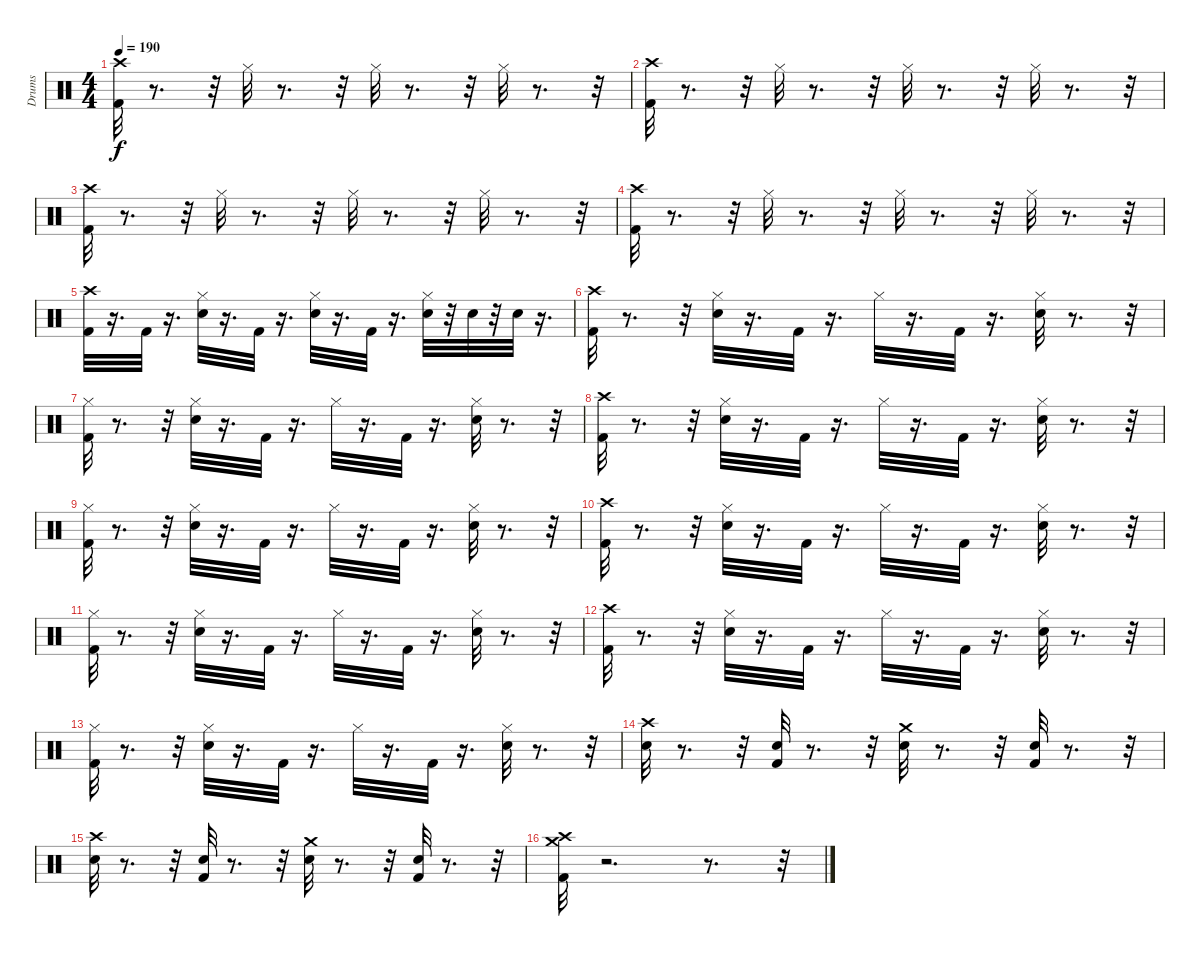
\track ("Drums" "Drums") {instrument percussion}
\staff {score}
\articulation defaults
\ts (4 4)
\tempo 190
\clef neutral
\ks c
("Crash high (hit)" "Kick (hit) 2").32{dy f} r.8{d} r.32 "Hi-Hat (closed)".32 r.8{d} r.32 "Hi-Hat (closed)".32 r.8{d} r.32 "Hi-Hat (closed)".32 r.8{d} r.32 |
("Kick (hit) 2" "Crash high (hit)").32 r.8{d} r.32 "Hi-Hat (closed)".32 r.8{d} r.32 "Hi-Hat (closed)".32 r.8{d} r.32 "Hi-Hat (closed)".32 r.8{d} r.32 |
("Kick (hit) 2" "Crash high (hit)").32 r.8{d} r.32 "Hi-Hat (closed)".32 r.8{d} r.32 "Hi-Hat (closed)".32 r.8{d} r.32 "Hi-Hat (closed)".32 r.8{d} r.32 |
("Crash high (hit)" "Kick (hit) 2").32 r.8{d} r.32 "Hi-Hat (closed)".32 r.8{d} r.32 "Hi-Hat (closed)".32 r.8{d} r.32 "Hi-Hat (closed)".32 r.8{d} r.32 |
("Crash high (hit)" "Kick (hit) 2").32 r.16{d} "Kick (hit) 2".32 r.16{d} ("Hi-Hat (closed)" "Snare (hit) 2").32 r.16{d} "Kick (hit) 2".32 r.16{d} ("Snare (hit) 2" "Hi-Hat (closed)").32 r.16{d} "Kick (hit) 2".32 r.16{d} ("Hi-Hat (closed)" "Snare (hit) 2").32 r.32 "Snare (hit) 2".32 r.32 "Snare (hit) 2".32 r.16{d} |
("Kick (hit) 2" "Crash high (hit)").32 r.8{d} r.32 ("Hi-Hat (closed)" "Snare (hit) 2").32 r.16{d} "Kick (hit) 2".32 r.16{d} "Hi-Hat (closed)".32 r.16{d} "Kick (hit) 2".32 r.16{d} ("Hi-Hat (closed)" "Snare (hit) 2").32 r.8{d} r.32 |
("Hi-Hat (closed)" "Kick (hit) 2").32 r.8{d} r.32 ("Snare (hit) 2" "Hi-Hat (closed)").32 r.16{d} "Kick (hit) 2".32 r.16{d} "Hi-Hat (closed)".32 r.16{d} "Kick (hit) 2".32 r.16{d} ("Snare (hit) 2" "Hi-Hat (closed)").32 r.8{d} r.32 |
("Kick (hit) 2" "Crash high (hit)").32 r.8{d} r.32 ("Hi-Hat (closed)" "Snare (hit) 2").32 r.16{d} "Kick (hit) 2".32 r.16{d} "Hi-Hat (closed)".32 r.16{d} "Kick (hit) 2".32 r.16{d} ("Hi-Hat (closed)" "Snare (hit) 2").32 r.8{d} r.32 |
("Hi-Hat (closed)" "Kick (hit) 2").32 r.8{d} r.32 ("Snare (hit) 2" "Hi-Hat (closed)").32 r.16{d} "Kick (hit) 2".32 r.16{d} "Hi-Hat (closed)".32 r.16{d} "Kick (hit) 2".32 r.16{d} ("Snare (hit) 2" "Hi-Hat (closed)").32 r.8{d} r.32 |
("Kick (hit) 2" "Crash high (hit)").32 r.8{d} r.32 ("Hi-Hat (closed)" "Snare (hit) 2").32 r.16{d} "Kick (hit) 2".32 r.16{d} "Hi-Hat (closed)".32 r.16{d} "Kick (hit) 2".32 r.16{d} ("Hi-Hat (closed)" "Snare (hit) 2").32 r.8{d} r.32 |
("Hi-Hat (closed)" "Kick (hit) 2").32 r.8{d} r.32 ("Snare (hit) 2" "Hi-Hat (closed)").32 r.16{d} "Kick (hit) 2".32 r.16{d} "Hi-Hat (closed)".32 r.16{d} "Kick (hit) 2".32 r.16{d} ("Snare (hit) 2" "Hi-Hat (closed)").32 r.8{d} r.32 |
("Kick (hit) 2" "Crash high (hit)").32 r.8{d} r.32 ("Hi-Hat (closed)" "Snare (hit) 2").32 r.16{d} "Kick (hit) 2".32 r.16{d} "Hi-Hat (closed)".32 r.16{d} "Kick (hit) 2".32 r.16{d} ("Hi-Hat (closed)" "Snare (hit) 2").32 r.8{d} r.32 |
("Hi-Hat (closed)" "Kick (hit) 2").32 r.8{d} r.32 ("Snare (hit) 2" "Hi-Hat (closed)").32 r.16{d} "Kick (hit) 2".32 r.16{d} "Hi-Hat (closed)".32 r.16{d} "Kick (hit) 2".32 r.16{d} ("Snare (hit) 2" "Hi-Hat (closed)").32 r.8{d} r.32 |
("Crash high (hit)" "Snare (hit) 2").32 r.8{d} r.32 ("Hand Clap (hit)" "Kick (hit) 2").32 r.8{d} r.32 ("Crash medium (hit)" "Snare (hit) 2").32 r.8{d} r.32 ("Hand Clap (hit)" "Kick (hit) 2").32 r.8{d} r.32 |
("Snare (hit) 2" "Crash high (hit)").32 r.8{d} r.32 ("Hand Clap (hit)" "Kick (hit) 2").32 r.8{d} r.32 ("Crash medium (hit)" "Snare (hit) 2").32 r.8{d} r.32 ("Hand Clap (hit)" "Kick (hit) 2").32 r.8{d} r.32 |
("Kick (hit) 2" "Crash high (hit)" "Crash medium (hit)").32 r.2{d} r.8{d} r.32
